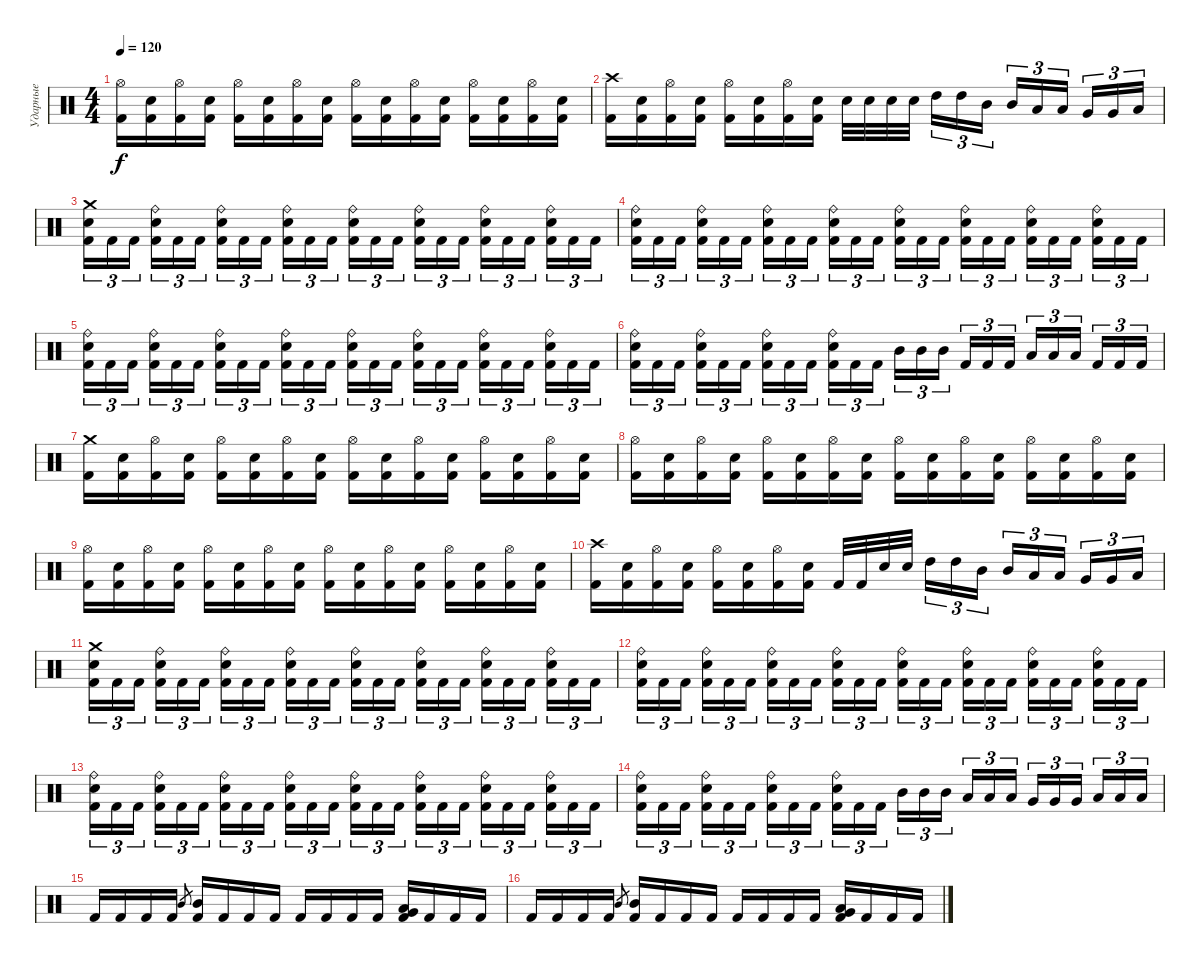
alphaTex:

\track ("Ударные" "Ударные") {instrument percussion}
\staff {score}
\articulation defaults
\ts (4 4)
\tempo 120
\clef neutral
\ks c
("Hi-Hat (open)" "Kick (hit) 2").16{dy f} ("Electric Snare (hit)" "Kick (hit) 2").16 ("Hi-Hat (open)" "Kick (hit) 2").16 ("Electric Snare (hit)" "Kick (hit) 2").16 ("Hi-Hat (open)" "Kick (hit) 2").16 ("Electric Snare (hit)" "Kick (hit) 2").16 ("Hi-Hat (open)" "Kick (hit) 2").16 ("Electric Snare (hit)" "Kick (hit) 2").16 ("Hi-Hat (open)" "Kick (hit) 2").16 ("Electric Snare (hit)" "Kick (hit) 2").16 ("Hi-Hat (open)" "Kick (hit) 2").16 ("Electric Snare (hit)" "Kick (hit) 2").16 ("Hi-Hat (open)" "Kick (hit) 2").16 ("Electric Snare (hit)" "Kick (hit) 2").16 ("Hi-Hat (open)" "Kick (hit) 2").16 ("Electric Snare (hit)" "Kick (hit) 2").16 |
("Crash high (hit)" "Kick (hit) 2").16 ("Electric Snare (hit)" "Kick (hit) 2").16 ("Hi-Hat (open)" "Kick (hit) 2").16 ("Electric Snare (hit)" "Kick (hit) 2").16 ("Hi-Hat (open)" "Kick (hit) 2").16 ("Electric Snare (hit)" "Kick (hit) 2").16 ("Hi-Hat (open)" "Kick (hit) 2").16 ("Electric Snare (hit)" "Kick (hit) 2").16 "Electric Snare (hit)".32 "Electric Snare (hit)".32 "Electric Snare (hit)".32 "Electric Snare (hit)".32{beam splitsecondary} "High Tom (hit)".16{tu (3 2)} "High Tom (hit)".16{tu (3 2)} "Mid Tom (hit)".16{tu (3 2)} "Mid Tom (hit)".16{tu (3 2)} "Low Tom (hit)".16{tu (3 2)} "Low Tom (hit)".16{tu (3 2) beam splitsecondary} "Very Low Tom (hit)".16{tu (3 2)} "Very Low Tom (hit)".16{tu (3 2)} "Low Floor Tom (hit)".16{tu (3 2)} |
("Crash medium (hit)" "Electric Snare (hit)" "Kick (hit) 2").16{tu (3 2)} "Kick (hit) 2".16{tu (3 2)} "Kick (hit) 2".16{tu (3 2) beam splitsecondary} ("Ride (bell)" "Electric Snare (hit)" "Kick (hit) 2").16{tu (3 2)} "Kick (hit) 2".16{tu (3 2)} "Kick (hit) 2".16{tu (3 2)} ("Ride (bell)" "Electric Snare (hit)" "Kick (hit) 2").16{tu (3 2)} "Kick (hit) 2".16{tu (3 2)} "Kick (hit) 2".16{tu (3 2) beam splitsecondary} ("Ride (bell)" "Electric Snare (hit)" "Kick (hit) 2").16{tu (3 2)} "Kick (hit) 2".16{tu (3 2)} "Kick (hit) 2".16{tu (3 2)} ("Ride (bell)" "Electric Snare (hit)" "Kick (hit) 2").16{tu (3 2)} "Kick (hit) 2".16{tu (3 2)} "Kick (hit) 2".16{tu (3 2) beam splitsecondary} ("Ride (bell)" "Electric Snare (hit)" "Kick (hit) 2").16{tu (3 2)} "Kick (hit) 2".16{tu (3 2)} "Kick (hit) 2".16{tu (3 2)} ("Ride (bell)" "Electric Snare (hit)" "Kick (hit) 2").16{tu (3 2)} "Kick (hit) 2".16{tu (3 2)} "Kick (hit) 2".16{tu (3 2) beam splitsecondary} ("Ride (bell)" "Electric Snare (hit)" "Kick (hit) 2").16{tu (3 2)} "Kick (hit) 2".16{tu (3 2)} "Kick (hit) 2".16{tu (3 2)} |
("Ride (bell)" "Electric Snare (hit)" "Kick (hit) 2").16{tu (3 2)} "Kick (hit) 2".16{tu (3 2)} "Kick (hit) 2".16{tu (3 2) beam splitsecondary} ("Ride (bell)" "Electric Snare (hit)" "Kick (hit) 2").16{tu (3 2)} "Kick (hit) 2".16{tu (3 2)} "Kick (hit) 2".16{tu (3 2)} ("Ride (bell)" "Electric Snare (hit)" "Kick (hit) 2").16{tu (3 2)} "Kick (hit) 2".16{tu (3 2)} "Kick (hit) 2".16{tu (3 2) beam splitsecondary} ("Ride (bell)" "Electric Snare (hit)" "Kick (hit) 2").16{tu (3 2)} "Kick (hit) 2".16{tu (3 2)} "Kick (hit) 2".16{tu (3 2)} ("Ride (bell)" "Electric Snare (hit)" "Kick (hit) 2").16{tu (3 2)} "Kick (hit) 2".16{tu (3 2)} "Kick (hit) 2".16{tu (3 2) beam splitsecondary} ("Ride (bell)" "Electric Snare (hit)" "Kick (hit) 2").16{tu (3 2)} "Kick (hit) 2".16{tu (3 2)} "Kick (hit) 2".16{tu (3 2)} ("Ride (bell)" "Electric Snare (hit)" "Kick (hit) 2").16{tu (3 2)} "Kick (hit) 2".16{tu (3 2)} "Kick (hit) 2".16{tu (3 2) beam splitsecondary} ("Ride (bell)" "Electric Snare (hit)" "Kick (hit) 2").16{tu (3 2)} "Kick (hit) 2".16{tu (3 2)} "Kick (hit) 2".16{tu (3 2)} |
("Ride (bell)" "Electric Snare (hit)" "Kick (hit) 2").16{tu (3 2)} "Kick (hit) 2".16{tu (3 2)} "Kick (hit) 2".16{tu (3 2) beam splitsecondary} ("Ride (bell)" "Electric Snare (hit)" "Kick (hit) 2").16{tu (3 2)} "Kick (hit) 2".16{tu (3 2)} "Kick (hit) 2".16{tu (3 2)} ("Ride (bell)" "Electric Snare (hit)" "Kick (hit) 2").16{tu (3 2)} "Kick (hit) 2".16{tu (3 2)} "Kick (hit) 2".16{tu (3 2) beam splitsecondary} ("Ride (bell)" "Electric Snare (hit)" "Kick (hit) 2").16{tu (3 2)} "Kick (hit) 2".16{tu (3 2)} "Kick (hit) 2".16{tu (3 2)} ("Ride (bell)" "Electric Snare (hit)" "Kick (hit) 2").16{tu (3 2)} "Kick (hit) 2".16{tu (3 2)} "Kick (hit) 2".16{tu (3 2) beam splitsecondary} ("Ride (bell)" "Electric Snare (hit)" "Kick (hit) 2").16{tu (3 2)} "Kick (hit) 2".16{tu (3 2)} "Kick (hit) 2".16{tu (3 2)} ("Ride (bell)" "Electric Snare (hit)" "Kick (hit) 2").16{tu (3 2)} "Kick (hit) 2".16{tu (3 2)} "Kick (hit) 2".16{tu (3 2) beam splitsecondary} ("Ride (bell)" "Electric Snare (hit)" "Kick (hit) 2").16{tu (3 2)} "Kick (hit) 2".16{tu (3 2)} "Kick (hit) 2".16{tu (3 2)} |
("Ride (bell)" "Electric Snare (hit)" "Kick (hit) 2").16{tu (3 2)} "Kick (hit) 2".16{tu (3 2)} "Kick (hit) 2".16{tu (3 2) beam splitsecondary} ("Ride (bell)" "Electric Snare (hit)" "Kick (hit) 2").16{tu (3 2)} "Kick (hit) 2".16{tu (3 2)} "Kick (hit) 2".16{tu (3 2)} ("Ride (bell)" "Electric Snare (hit)" "Kick (hit) 2").16{tu (3 2)} "Kick (hit) 2".16{tu (3 2)} "Kick (hit) 2".16{tu (3 2) beam splitsecondary} ("Ride (bell)" "Electric Snare (hit)" "Kick (hit) 2").16{tu (3 2)} "Kick (hit) 2".16{tu (3 2)} "Kick (hit) 2".16{tu (3 2)} "Mid Tom (hit)".16{tu (3 2)} "Mid Tom (hit)".16{tu (3 2)} "Mid Tom (hit)".16{tu (3 2) beam splitsecondary} "Kick (hit) 2".16{tu (3 2)} "Kick (hit) 2".16{tu (3 2)} "Kick (hit) 2".16{tu (3 2)} "Low Tom (hit)".16{tu (3 2)} "Low Tom (hit)".16{tu (3 2)} "Low Tom (hit)".16{tu (3 2) beam splitsecondary} "Kick (hit) 2".16{tu (3 2)} "Kick (hit) 2".16{tu (3 2)} "Kick (hit) 2".16{tu (3 2)} |
("Crash medium (hit)" "Kick (hit) 2").16 ("Electric Snare (hit)" "Kick (hit) 2").16 ("Hi-Hat (open)" "Kick (hit) 2").16 ("Electric Snare (hit)" "Kick (hit) 2").16 ("Hi-Hat (open)" "Kick (hit) 2").16 ("Electric Snare (hit)" "Kick (hit) 2").16 ("Hi-Hat (open)" "Kick (hit) 2").16 ("Electric Snare (hit)" "Kick (hit) 2").16 ("Hi-Hat (open)" "Kick (hit) 2").16 ("Electric Snare (hit)" "Kick (hit) 2").16 ("Hi-Hat (open)" "Kick (hit) 2").16 ("Electric Snare (hit)" "Kick (hit) 2").16 ("Hi-Hat (open)" "Kick (hit) 2").16 ("Electric Snare (hit)" "Kick (hit) 2").16 ("Hi-Hat (open)" "Kick (hit) 2").16 ("Electric Snare (hit)" "Kick (hit) 2").16 |
("Hi-Hat (open)" "Kick (hit) 2").16 ("Electric Snare (hit)" "Kick (hit) 2").16 ("Hi-Hat (open)" "Kick (hit) 2").16 ("Electric Snare (hit)" "Kick (hit) 2").16 ("Hi-Hat (open)" "Kick (hit) 2").16 ("Electric Snare (hit)" "Kick (hit) 2").16 ("Hi-Hat (open)" "Kick (hit) 2").16 ("Electric Snare (hit)" "Kick (hit) 2").16 ("Hi-Hat (open)" "Kick (hit) 2").16 ("Electric Snare (hit)" "Kick (hit) 2").16 ("Hi-Hat (open)" "Kick (hit) 2").16 ("Electric Snare (hit)" "Kick (hit) 2").16 ("Hi-Hat (open)" "Kick (hit) 2").16 ("Electric Snare (hit)" "Kick (hit) 2").16 ("Hi-Hat (open)" "Kick (hit) 2").16 ("Electric Snare (hit)" "Kick (hit) 2").16 |
("Hi-Hat (open)" "Kick (hit) 2").16 ("Electric Snare (hit)" "Kick (hit) 2").16 ("Hi-Hat (open)" "Kick (hit) 2").16 ("Electric Snare (hit)" "Kick (hit) 2").16 ("Hi-Hat (open)" "Kick (hit) 2").16 ("Electric Snare (hit)" "Kick (hit) 2").16 ("Hi-Hat (open)" "Kick (hit) 2").16 ("Electric Snare (hit)" "Kick (hit) 2").16 ("Hi-Hat (open)" "Kick (hit) 2").16 ("Electric Snare (hit)" "Kick (hit) 2").16 ("Hi-Hat (open)" "Kick (hit) 2").16 ("Electric Snare (hit)" "Kick (hit) 2").16 ("Hi-Hat (open)" "Kick (hit) 2").16 ("Electric Snare (hit)" "Kick (hit) 2").16 ("Hi-Hat (open)" "Kick (hit) 2").16 ("Electric Snare (hit)" "Kick (hit) 2").16 |
("Crash high (hit)" "Kick (hit) 2").16 ("Electric Snare (hit)" "Kick (hit) 2").16 ("Hi-Hat (open)" "Kick (hit) 2").16 ("Electric Snare (hit)" "Kick (hit) 2").16 ("Hi-Hat (open)" "Kick (hit) 2").16 ("Electric Snare (hit)" "Kick (hit) 2").16 ("Hi-Hat (open)" "Kick (hit) 2").16 ("Electric Snare (hit)" "Kick (hit) 2").16 "Kick (hit) 2".32 "Kick (hit) 2".32 "Electric Snare (hit)".32 "Electric Snare (hit)".32{beam splitsecondary} "High Tom (hit)".16{tu (3 2)} "High Tom (hit)".16{tu (3 2)} "Mid Tom (hit)".16{tu (3 2)} "Mid Tom (hit)".16{tu (3 2)} "Low Tom (hit)".16{tu (3 2)} "Low Tom (hit)".16{tu (3 2) beam splitsecondary} "Very Low Tom (hit)".16{tu (3 2)} "Very Low Tom (hit)".16{tu (3 2)} "Low Floor Tom (hit)".16{tu (3 2)} |
("Crash medium (hit)" "Electric Snare (hit)" "Kick (hit) 2").16{tu (3 2)} "Kick (hit) 2".16{tu (3 2)} "Kick (hit) 2".16{tu (3 2) beam splitsecondary} ("Ride (bell)" "Electric Snare (hit)" "Kick (hit) 2").16{tu (3 2)} "Kick (hit) 2".16{tu (3 2)} "Kick (hit) 2".16{tu (3 2)} ("Ride (bell)" "Electric Snare (hit)" "Kick (hit) 2").16{tu (3 2)} "Kick (hit) 2".16{tu (3 2)} "Kick (hit) 2".16{tu (3 2) beam splitsecondary} ("Ride (bell)" "Electric Snare (hit)" "Kick (hit) 2").16{tu (3 2)} "Kick (hit) 2".16{tu (3 2)} "Kick (hit) 2".16{tu (3 2)} ("Ride (bell)" "Electric Snare (hit)" "Kick (hit) 2").16{tu (3 2)} "Kick (hit) 2".16{tu (3 2)} "Kick (hit) 2".16{tu (3 2) beam splitsecondary} ("Ride (bell)" "Electric Snare (hit)" "Kick (hit) 2").16{tu (3 2)} "Kick (hit) 2".16{tu (3 2)} "Kick (hit) 2".16{tu (3 2)} ("Ride (bell)" "Electric Snare (hit)" "Kick (hit) 2").16{tu (3 2)} "Kick (hit) 2".16{tu (3 2)} "Kick (hit) 2".16{tu (3 2) beam splitsecondary} ("Ride (bell)" "Electric Snare (hit)" "Kick (hit) 2").16{tu (3 2)} "Kick (hit) 2".16{tu (3 2)} "Kick (hit) 2".16{tu (3 2)} |
("Ride (bell)" "Electric Snare (hit)" "Kick (hit) 2").16{tu (3 2)} "Kick (hit) 2".16{tu (3 2)} "Kick (hit) 2".16{tu (3 2) beam splitsecondary} ("Ride (bell)" "Electric Snare (hit)" "Kick (hit) 2").16{tu (3 2)} "Kick (hit) 2".16{tu (3 2)} "Kick (hit) 2".16{tu (3 2)} ("Ride (bell)" "Electric Snare (hit)" "Kick (hit) 2").16{tu (3 2)} "Kick (hit) 2".16{tu (3 2)} "Kick (hit) 2".16{tu (3 2) beam splitsecondary} ("Ride (bell)" "Electric Snare (hit)" "Kick (hit) 2").16{tu (3 2)} "Kick (hit) 2".16{tu (3 2)} "Kick (hit) 2".16{tu (3 2)} ("Ride (bell)" "Electric Snare (hit)" "Kick (hit) 2").16{tu (3 2)} "Kick (hit) 2".16{tu (3 2)} "Kick (hit) 2".16{tu (3 2) beam splitsecondary} ("Ride (bell)" "Electric Snare (hit)" "Kick (hit) 2").16{tu (3 2)} "Kick (hit) 2".16{tu (3 2)} "Kick (hit) 2".16{tu (3 2)} ("Ride (bell)" "Electric Snare (hit)" "Kick (hit) 2").16{tu (3 2)} "Kick (hit) 2".16{tu (3 2)} "Kick (hit) 2".16{tu (3 2) beam splitsecondary} ("Ride (bell)" "Electric Snare (hit)" "Kick (hit) 2").16{tu (3 2)} "Kick (hit) 2".16{tu (3 2)} "Kick (hit) 2".16{tu (3 2)} |
("Ride (bell)" "Electric Snare (hit)" "Kick (hit) 2").16{tu (3 2)} "Kick (hit) 2".16{tu (3 2)} "Kick (hit) 2".16{tu (3 2) beam splitsecondary} ("Ride (bell)" "Electric Snare (hit)" "Kick (hit) 2").16{tu (3 2)} "Kick (hit) 2".16{tu (3 2)} "Kick (hit) 2".16{tu (3 2)} ("Ride (bell)" "Electric Snare (hit)" "Kick (hit) 2").16{tu (3 2)} "Kick (hit) 2".16{tu (3 2)} "Kick (hit) 2".16{tu (3 2) beam splitsecondary} ("Ride (bell)" "Electric Snare (hit)" "Kick (hit) 2").16{tu (3 2)} "Kick (hit) 2".16{tu (3 2)} "Kick (hit) 2".16{tu (3 2)} ("Ride (bell)" "Electric Snare (hit)" "Kick (hit) 2").16{tu (3 2)} "Kick (hit) 2".16{tu (3 2)} "Kick (hit) 2".16{tu (3 2) beam splitsecondary} ("Ride (bell)" "Electric Snare (hit)" "Kick (hit) 2").16{tu (3 2)} "Kick (hit) 2".16{tu (3 2)} "Kick (hit) 2".16{tu (3 2)} ("Ride (bell)" "Electric Snare (hit)" "Kick (hit) 2").16{tu (3 2)} "Kick (hit) 2".16{tu (3 2)} "Kick (hit) 2".16{tu (3 2) beam splitsecondary} ("Ride (bell)" "Electric Snare (hit)" "Kick (hit) 2").16{tu (3 2)} "Kick (hit) 2".16{tu (3 2)} "Kick (hit) 2".16{tu (3 2)} |
("Ride (bell)" "Electric Snare (hit)" "Kick (hit) 2").16{tu (3 2)} "Kick (hit) 2".16{tu (3 2)} "Kick (hit) 2".16{tu (3 2) beam splitsecondary} ("Ride (bell)" "Electric Snare (hit)" "Kick (hit) 2").16{tu (3 2)} "Kick (hit) 2".16{tu (3 2)} "Kick (hit) 2".16{tu (3 2)} ("Ride (bell)" "Electric Snare (hit)" "Kick (hit) 2").16{tu (3 2)} "Kick (hit) 2".16{tu (3 2)} "Kick (hit) 2".16{tu (3 2) beam splitsecondary} ("Ride (bell)" "Electric Snare (hit)" "Kick (hit) 2").16{tu (3 2)} "Kick (hit) 2".16{tu (3 2)} "Kick (hit) 2".16{tu (3 2)} "Mid Tom (hit)".16{tu (3 2)} "Mid Tom (hit)".16{tu (3 2)} "Mid Tom (hit)".16{tu (3 2) beam splitsecondary} "Low Tom (hit)".16{tu (3 2)} "Low Tom (hit)".16{tu (3 2)} "Low Tom (hit)".16{tu (3 2)} "Very Low Tom (hit)".16{tu (3 2)} "Very Low Tom (hit)".16{tu (3 2)} "Very Low Tom (hit)".16{tu (3 2) beam splitsecondary} "Low Floor Tom (hit)".16{tu (3 2)} "Low Floor Tom (hit)".16{tu (3 2)} "Low Floor Tom (hit)".16{tu (3 2)} |
"Kick (hit) 2".16 "Kick (hit) 2".16 "Kick (hit) 2".16 "Kick (hit) 2".16 "Mid Tom (hit)".8{gr} ("Mid Tom (hit)" "Kick (hit) 2").16 "Kick (hit) 2".16 "Kick (hit) 2".16 "Kick (hit) 2".16 "Kick (hit) 2".16 "Kick (hit) 2".16 "Kick (hit) 2".16 "Kick (hit) 2".16 ("Low Tom (hit)" "Very Low Tom (hit)" "Kick (hit) 2").16 "Kick (hit) 2".16 "Kick (hit) 2".16 "Kick (hit) 2".16 |
"Kick (hit) 2".16 "Kick (hit) 2".16 "Kick (hit) 2".16 "Kick (hit) 2".16 "Mid Tom (hit)".8{gr} ("Mid Tom (hit)" "Kick (hit) 2").16 "Kick (hit) 2".16 "Kick (hit) 2".16 "Kick (hit) 2".16 "Kick (hit) 2".16 "Kick (hit) 2".16 "Kick (hit) 2".16 "Kick (hit) 2".16 ("Low Tom (hit)" "Very Low Tom (hit)" "Kick (hit) 2").16 "Kick (hit) 2".16 "Kick (hit) 2".16 "Kick (hit) 2".16
